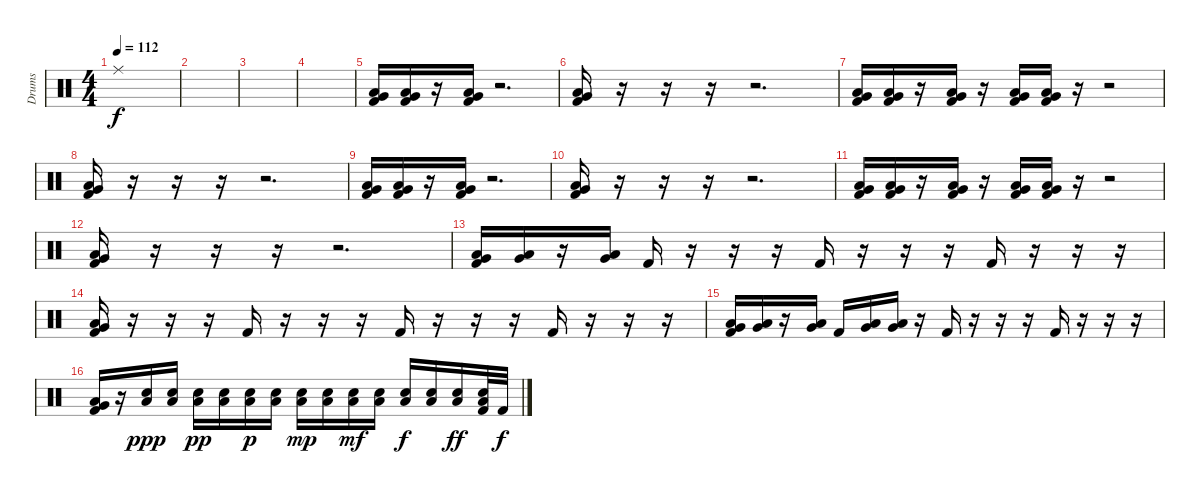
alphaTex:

\track ("Drums" "Drums") {instrument percussion}
\staff {score}
\articulation defaults
\ts (4 4)
\tempo 112
\clef neutral
\ks c "Ride (middle)".1{dy f}
|
|
|
|
("Very Low Tom (hit)" "Low Tom (hit)" "Kick (hit) 2").16 ("Very Low Tom (hit)" "Low Tom (hit)" "Kick (hit) 2").16 r.16 ("Very Low Tom (hit)" "Low Tom (hit)" "Kick (hit) 2").16 r.2{d} |
("Very Low Tom (hit)" "Low Tom (hit)" "Kick (hit) 2").16 r.16 r.16 r.16 r.2{d} |
("Very Low Tom (hit)" "Low Tom (hit)" "Kick (hit) 2").16 ("Very Low Tom (hit)" "Low Tom (hit)" "Kick (hit) 2").16 r.16 ("Very Low Tom (hit)" "Low Tom (hit)" "Kick (hit) 2").16 r.16 ("Very Low Tom (hit)" "Low Tom (hit)" "Kick (hit) 2").16 ("Very Low Tom (hit)" "Low Tom (hit)" "Kick (hit) 2").16 r.16 r.2 |
("Very Low Tom (hit)" "Low Tom (hit)" "Kick (hit) 2").16 r.16 r.16 r.16 r.2{d} |
("Very Low Tom (hit)" "Low Tom (hit)" "Kick (hit) 2").16 ("Very Low Tom (hit)" "Low Tom (hit)" "Kick (hit) 2").16 r.16 ("Very Low Tom (hit)" "Low Tom (hit)" "Kick (hit) 2").16 r.2{d} |
("Very Low Tom (hit)" "Low Tom (hit)" "Kick (hit) 2").16 r.16 r.16 r.16 r.2{d} |
("Very Low Tom (hit)" "Low Tom (hit)" "Kick (hit) 2").16 ("Very Low Tom (hit)" "Low Tom (hit)" "Kick (hit) 2").16 r.16 ("Very Low Tom (hit)" "Low Tom (hit)" "Kick (hit) 2").16 r.16 ("Very Low Tom (hit)" "Low Tom (hit)" "Kick (hit) 2").16 ("Very Low Tom (hit)" "Low Tom (hit)" "Kick (hit) 2").16 r.16 r.2 |
("Very Low Tom (hit)" "Low Tom (hit)" "Kick (hit) 2").16 r.16 r.16 r.16 r.2{d} |
("Very Low Tom (hit)" "Low Tom (hit)" "Kick (hit) 2").16 ("Very Low Tom (hit)" "Low Tom (hit)").16 r.16 ("Very Low Tom (hit)" "Low Tom (hit)").16 "Kick (hit) 2".16 r.16 r.16 r.16 "Kick (hit) 2".16 r.16 r.16 r.16 "Kick (hit) 2".16 r.16 r.16 r.16 |
("Very Low Tom (hit)" "Low Tom (hit)" "Kick (hit) 2").16 r.16 r.16 r.16 "Kick (hit) 2".16 r.16 r.16 r.16 "Kick (hit) 2".16 r.16 r.16 r.16 "Kick (hit) 2".16 r.16 r.16 r.16 |
("Very Low Tom (hit)" "Low Tom (hit)" "Kick (hit) 2").16 ("Very Low Tom (hit)" "Low Tom (hit)").16 r.16 ("Very Low Tom (hit)" "Low Tom (hit)").16 "Kick (hit) 2".16 ("Very Low Tom (hit)" "Low Tom (hit)").16 ("Very Low Tom (hit)" "Low Tom (hit)").16 r.16 "Kick (hit) 2".16 r.16 r.16 r.16 "Kick (hit) 2".16 r.16 r.16 r.16 |
("Very Low Tom (hit)" "Low Tom (hit)" "Kick (hit) 2").16 r.16 ("Low Tom (hit)" "Snare (hit) 2").16{dy ppp} ("Low Tom (hit)" "Snare (hit) 2").16 ("Low Tom (hit)" "Snare (hit) 2").16{dy pp} ("Low Tom (hit)" "Snare (hit) 2").16 ("Low Tom (hit)" "Snare (hit) 2").16{dy p} ("Low Tom (hit)" "Snare (hit) 2").16 ("Low Tom (hit)" "Snare (hit) 2").16{dy mp} ("Low Tom (hit)" "Snare (hit) 2").16 ("Low Tom (hit)" "Snare (hit) 2").16{dy mf} ("Low Tom (hit)" "Snare (hit) 2").16 ("Low Tom (hit)" "Snare (hit) 2").16{dy f} ("Low Tom (hit)" "Snare (hit) 2").16 ("Low Tom (hit)" "Snare (hit) 2").16{dy ff} ("Low Tom (hit)" "Snare (hit) 2" "Kick (hit) 2").32 "Kick (hit) 2".32{dy f}
